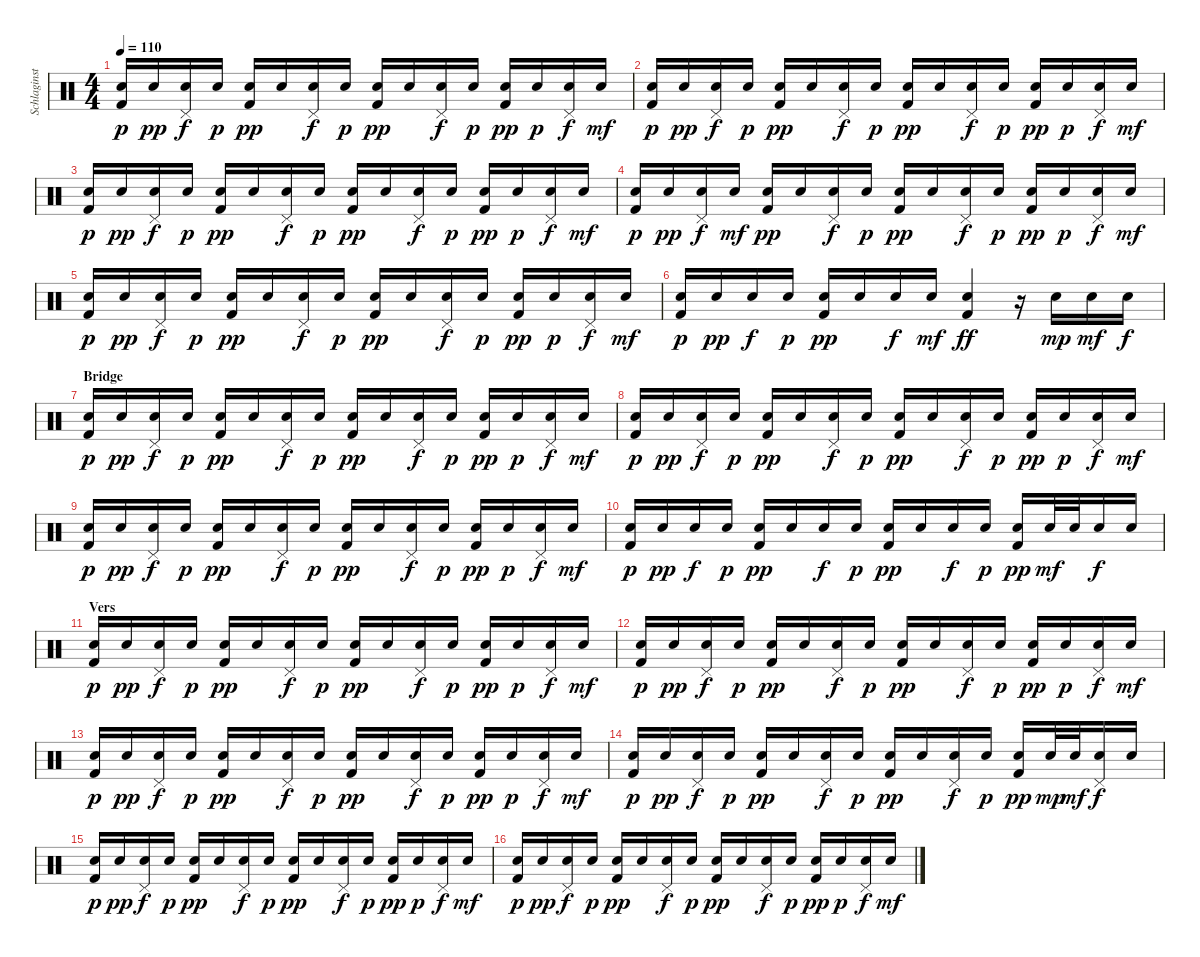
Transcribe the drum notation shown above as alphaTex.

\track ("Schlaginstrumente - Auswahl" "Schlaginst") {instrument percussion}
\staff {score}
\articulation defaults
\ts (4 4)
\tempo 110
\clef neutral
\ks c
("Snare (hit) 2" "Kick (hit) 2").16{dy p} "Snare (hit) 2".16{dy pp} ("Pedal Hi-Hat (hit)" "Snare (hit) 2").16{dy f} "Snare (hit) 2".16{dy p} ("Snare (hit) 2" "Kick (hit) 2").16{dy pp} "Snare (hit) 2".16 ("Pedal Hi-Hat (hit)" "Snare (hit) 2").16{dy f} "Snare (hit) 2".16{dy p} ("Snare (hit) 2" "Kick (hit) 2").16{dy pp} "Snare (hit) 2".16 ("Pedal Hi-Hat (hit)" "Snare (hit) 2").16{dy f} "Snare (hit) 2".16{dy p} ("Snare (hit) 2" "Kick (hit) 2").16{dy pp} "Snare (hit) 2".16{dy p} ("Pedal Hi-Hat (hit)" "Snare (hit) 2").16{dy f} "Snare (hit) 2".16{dy mf} |
("Snare (hit) 2" "Kick (hit) 2").16{dy p} "Snare (hit) 2".16{dy pp} ("Pedal Hi-Hat (hit)" "Snare (hit) 2").16{dy f} "Snare (hit) 2".16{dy p} ("Snare (hit) 2" "Kick (hit) 2").16{dy pp} "Snare (hit) 2".16 ("Pedal Hi-Hat (hit)" "Snare (hit) 2").16{dy f} "Snare (hit) 2".16{dy p} ("Snare (hit) 2" "Kick (hit) 2").16{dy pp} "Snare (hit) 2".16 ("Pedal Hi-Hat (hit)" "Snare (hit) 2").16{dy f} "Snare (hit) 2".16{dy p} ("Snare (hit) 2" "Kick (hit) 2").16{dy pp} "Snare (hit) 2".16{dy p} ("Pedal Hi-Hat (hit)" "Snare (hit) 2").16{dy f} "Snare (hit) 2".16{dy mf} |
("Snare (hit) 2" "Kick (hit) 2").16{dy p} "Snare (hit) 2".16{dy pp} ("Pedal Hi-Hat (hit)" "Snare (hit) 2").16{dy f} "Snare (hit) 2".16{dy p} ("Snare (hit) 2" "Kick (hit) 2").16{dy pp} "Snare (hit) 2".16 ("Pedal Hi-Hat (hit)" "Snare (hit) 2").16{dy f} "Snare (hit) 2".16{dy p} ("Snare (hit) 2" "Kick (hit) 2").16{dy pp} "Snare (hit) 2".16 ("Pedal Hi-Hat (hit)" "Snare (hit) 2").16{dy f} "Snare (hit) 2".16{dy p} ("Snare (hit) 2" "Kick (hit) 2").16{dy pp} "Snare (hit) 2".16{dy p} ("Pedal Hi-Hat (hit)" "Snare (hit) 2").16{dy f} "Snare (hit) 2".16{dy mf} |
("Snare (hit) 2" "Kick (hit) 2").16{dy p} "Snare (hit) 2".16{dy pp} ("Pedal Hi-Hat (hit)" "Snare (hit) 2").16{dy f} "Snare (hit) 2".16{dy mf} ("Snare (hit) 2" "Kick (hit) 2").16{dy pp} "Snare (hit) 2".16 ("Pedal Hi-Hat (hit)" "Snare (hit) 2").16{dy f} "Snare (hit) 2".16{dy p} ("Snare (hit) 2" "Kick (hit) 2").16{dy pp} "Snare (hit) 2".16 ("Pedal Hi-Hat (hit)" "Snare (hit) 2").16{dy f} "Snare (hit) 2".16{dy p} ("Snare (hit) 2" "Kick (hit) 2").16{dy pp} "Snare (hit) 2".16{dy p} ("Pedal Hi-Hat (hit)" "Snare (hit) 2").16{dy f} "Snare (hit) 2".16{dy mf} |
("Snare (hit) 2" "Kick (hit) 2").16{dy p} "Snare (hit) 2".16{dy pp} ("Pedal Hi-Hat (hit)" "Snare (hit) 2").16{dy f} "Snare (hit) 2".16{dy p} ("Snare (hit) 2" "Kick (hit) 2").16{dy pp} "Snare (hit) 2".16 ("Pedal Hi-Hat (hit)" "Snare (hit) 2").16{dy f} "Snare (hit) 2".16{dy p} ("Snare (hit) 2" "Kick (hit) 2").16{dy pp} "Snare (hit) 2".16 ("Pedal Hi-Hat (hit)" "Snare (hit) 2").16{dy f} "Snare (hit) 2".16{dy p} ("Snare (hit) 2" "Kick (hit) 2").16{dy pp} "Snare (hit) 2".16{dy p} ("Pedal Hi-Hat (hit)" "Snare (hit) 2").16{dy f} "Snare (hit) 2".16{dy mf} |
("Snare (hit) 2" "Kick (hit) 2").16{dy p} "Snare (hit) 2".16{dy pp} "Snare (hit) 2".16{dy f} "Snare (hit) 2".16{dy p} ("Snare (hit) 2" "Kick (hit) 2").16{dy pp} "Snare (hit) 2".16 "Snare (hit) 2".16{dy f} "Snare (hit) 2".16{dy mf} ("Snare (hit) 2" "Kick (hit) 2").4{dy ff} r.16 "Snare (hit) 2".16{dy mp} "Snare (hit) 2".16{dy mf} "Snare (hit) 2".16{dy f} |
\section ("" "Bridge")
("Snare (hit) 2" "Kick (hit) 2").16{dy p} "Snare (hit) 2".16{dy pp} ("Pedal Hi-Hat (hit)" "Snare (hit) 2").16{dy f} "Snare (hit) 2".16{dy p} ("Snare (hit) 2" "Kick (hit) 2").16{dy pp} "Snare (hit) 2".16 ("Pedal Hi-Hat (hit)" "Snare (hit) 2").16{dy f} "Snare (hit) 2".16{dy p} ("Snare (hit) 2" "Kick (hit) 2").16{dy pp} "Snare (hit) 2".16 ("Pedal Hi-Hat (hit)" "Snare (hit) 2").16{dy f} "Snare (hit) 2".16{dy p} ("Snare (hit) 2" "Kick (hit) 2").16{dy pp} "Snare (hit) 2".16{dy p} ("Pedal Hi-Hat (hit)" "Snare (hit) 2").16{dy f} "Snare (hit) 2".16{dy mf} |
("Snare (hit) 2" "Kick (hit) 2").16{dy p} "Snare (hit) 2".16{dy pp} ("Pedal Hi-Hat (hit)" "Snare (hit) 2").16{dy f} "Snare (hit) 2".16{dy p} ("Snare (hit) 2" "Kick (hit) 2").16{dy pp} "Snare (hit) 2".16 ("Pedal Hi-Hat (hit)" "Snare (hit) 2").16{dy f} "Snare (hit) 2".16{dy p} ("Snare (hit) 2" "Kick (hit) 2").16{dy pp} "Snare (hit) 2".16 ("Pedal Hi-Hat (hit)" "Snare (hit) 2").16{dy f} "Snare (hit) 2".16{dy p} ("Snare (hit) 2" "Kick (hit) 2").16{dy pp} "Snare (hit) 2".16{dy p} ("Pedal Hi-Hat (hit)" "Snare (hit) 2").16{dy f} "Snare (hit) 2".16{dy mf} |
("Snare (hit) 2" "Kick (hit) 2").16{dy p} "Snare (hit) 2".16{dy pp} ("Pedal Hi-Hat (hit)" "Snare (hit) 2").16{dy f} "Snare (hit) 2".16{dy p} ("Snare (hit) 2" "Kick (hit) 2").16{dy pp} "Snare (hit) 2".16 ("Pedal Hi-Hat (hit)" "Snare (hit) 2").16{dy f} "Snare (hit) 2".16{dy p} ("Snare (hit) 2" "Kick (hit) 2").16{dy pp} "Snare (hit) 2".16 ("Pedal Hi-Hat (hit)" "Snare (hit) 2").16{dy f} "Snare (hit) 2".16{dy p} ("Snare (hit) 2" "Kick (hit) 2").16{dy pp} "Snare (hit) 2".16{dy p} ("Pedal Hi-Hat (hit)" "Snare (hit) 2").16{dy f} "Snare (hit) 2".16{dy mf} |
("Snare (hit) 2" "Kick (hit) 2").16{dy p} "Snare (hit) 2".16{dy pp} "Snare (hit) 2".16{dy f} "Snare (hit) 2".16{dy p} ("Snare (hit) 2" "Kick (hit) 2").16{dy pp} "Snare (hit) 2".16 "Snare (hit) 2".16{dy f} "Snare (hit) 2".16{dy p} ("Snare (hit) 2" "Kick (hit) 2").16{dy pp} "Snare (hit) 2".16 "Snare (hit) 2".16{dy f} "Snare (hit) 2".16{dy p} ("Snare (hit) 2" "Kick (hit) 2").16{dy pp} "Snare (hit) 2".32{dy mf} "Snare (hit) 2".32 "Snare (hit) 2".16{dy f} "Snare (hit) 2".16 |
\section ("" "Vers")
("Snare (hit) 2" "Kick (hit) 2").16{dy p} "Snare (hit) 2".16{dy pp} ("Pedal Hi-Hat (hit)" "Snare (hit) 2").16{dy f} "Snare (hit) 2".16{dy p} ("Snare (hit) 2" "Kick (hit) 2").16{dy pp} "Snare (hit) 2".16 ("Pedal Hi-Hat (hit)" "Snare (hit) 2").16{dy f} "Snare (hit) 2".16{dy p} ("Snare (hit) 2" "Kick (hit) 2").16{dy pp} "Snare (hit) 2".16 ("Pedal Hi-Hat (hit)" "Snare (hit) 2").16{dy f} "Snare (hit) 2".16{dy p} ("Snare (hit) 2" "Kick (hit) 2").16{dy pp} "Snare (hit) 2".16{dy p} ("Pedal Hi-Hat (hit)" "Snare (hit) 2").16{dy f} "Snare (hit) 2".16{dy mf} |
("Snare (hit) 2" "Kick (hit) 2").16{dy p} "Snare (hit) 2".16{dy pp} ("Pedal Hi-Hat (hit)" "Snare (hit) 2").16{dy f} "Snare (hit) 2".16{dy p} ("Snare (hit) 2" "Kick (hit) 2").16{dy pp} "Snare (hit) 2".16 ("Pedal Hi-Hat (hit)" "Snare (hit) 2").16{dy f} "Snare (hit) 2".16{dy p} ("Snare (hit) 2" "Kick (hit) 2").16{dy pp} "Snare (hit) 2".16 ("Pedal Hi-Hat (hit)" "Snare (hit) 2").16{dy f} "Snare (hit) 2".16{dy p} ("Snare (hit) 2" "Kick (hit) 2").16{dy pp} "Snare (hit) 2".16{dy p} ("Pedal Hi-Hat (hit)" "Snare (hit) 2").16{dy f} "Snare (hit) 2".16{dy mf} |
("Snare (hit) 2" "Kick (hit) 2").16{dy p} "Snare (hit) 2".16{dy pp} ("Pedal Hi-Hat (hit)" "Snare (hit) 2").16{dy f} "Snare (hit) 2".16{dy p} ("Snare (hit) 2" "Kick (hit) 2").16{dy pp} "Snare (hit) 2".16 ("Pedal Hi-Hat (hit)" "Snare (hit) 2").16{dy f} "Snare (hit) 2".16{dy p} ("Snare (hit) 2" "Kick (hit) 2").16{dy pp} "Snare (hit) 2".16 ("Pedal Hi-Hat (hit)" "Snare (hit) 2").16{dy f} "Snare (hit) 2".16{dy p} ("Snare (hit) 2" "Kick (hit) 2").16{dy pp} "Snare (hit) 2".16{dy p} ("Pedal Hi-Hat (hit)" "Snare (hit) 2").16{dy f} "Snare (hit) 2".16{dy mf} |
("Snare (hit) 2" "Kick (hit) 2").16{dy p} "Snare (hit) 2".16{dy pp} ("Pedal Hi-Hat (hit)" "Snare (hit) 2").16{dy f} "Snare (hit) 2".16{dy p} ("Snare (hit) 2" "Kick (hit) 2").16{dy pp} "Snare (hit) 2".16 ("Pedal Hi-Hat (hit)" "Snare (hit) 2").16{dy f} "Snare (hit) 2".16{dy p} ("Snare (hit) 2" "Kick (hit) 2").16{dy pp} "Snare (hit) 2".16 ("Pedal Hi-Hat (hit)" "Snare (hit) 2").16{dy f} "Snare (hit) 2".16{dy p} ("Snare (hit) 2" "Kick (hit) 2").16{dy pp} "Snare (hit) 2".32{dy mp} "Snare (hit) 2".32{dy mf} ("Pedal Hi-Hat (hit)" "Snare (hit) 2").16{dy f} "Snare (hit) 2".16 |
("Snare (hit) 2" "Kick (hit) 2").16{dy p} "Snare (hit) 2".16{dy pp} ("Pedal Hi-Hat (hit)" "Snare (hit) 2").16{dy f} "Snare (hit) 2".16{dy p} ("Snare (hit) 2" "Kick (hit) 2").16{dy pp} "Snare (hit) 2".16 ("Pedal Hi-Hat (hit)" "Snare (hit) 2").16{dy f} "Snare (hit) 2".16{dy p} ("Snare (hit) 2" "Kick (hit) 2").16{dy pp} "Snare (hit) 2".16 ("Pedal Hi-Hat (hit)" "Snare (hit) 2").16{dy f} "Snare (hit) 2".16{dy p} ("Snare (hit) 2" "Kick (hit) 2").16{dy pp} "Snare (hit) 2".16{dy p} ("Pedal Hi-Hat (hit)" "Snare (hit) 2").16{dy f} "Snare (hit) 2".16{dy mf} |
("Snare (hit) 2" "Kick (hit) 2").16{dy p} "Snare (hit) 2".16{dy pp} ("Pedal Hi-Hat (hit)" "Snare (hit) 2").16{dy f} "Snare (hit) 2".16{dy p} ("Snare (hit) 2" "Kick (hit) 2").16{dy pp} "Snare (hit) 2".16 ("Pedal Hi-Hat (hit)" "Snare (hit) 2").16{dy f} "Snare (hit) 2".16{dy p} ("Snare (hit) 2" "Kick (hit) 2").16{dy pp} "Snare (hit) 2".16 ("Pedal Hi-Hat (hit)" "Snare (hit) 2").16{dy f} "Snare (hit) 2".16{dy p} ("Snare (hit) 2" "Kick (hit) 2").16{dy pp} "Snare (hit) 2".16{dy p} ("Pedal Hi-Hat (hit)" "Snare (hit) 2").16{dy f} "Snare (hit) 2".16{dy mf}
